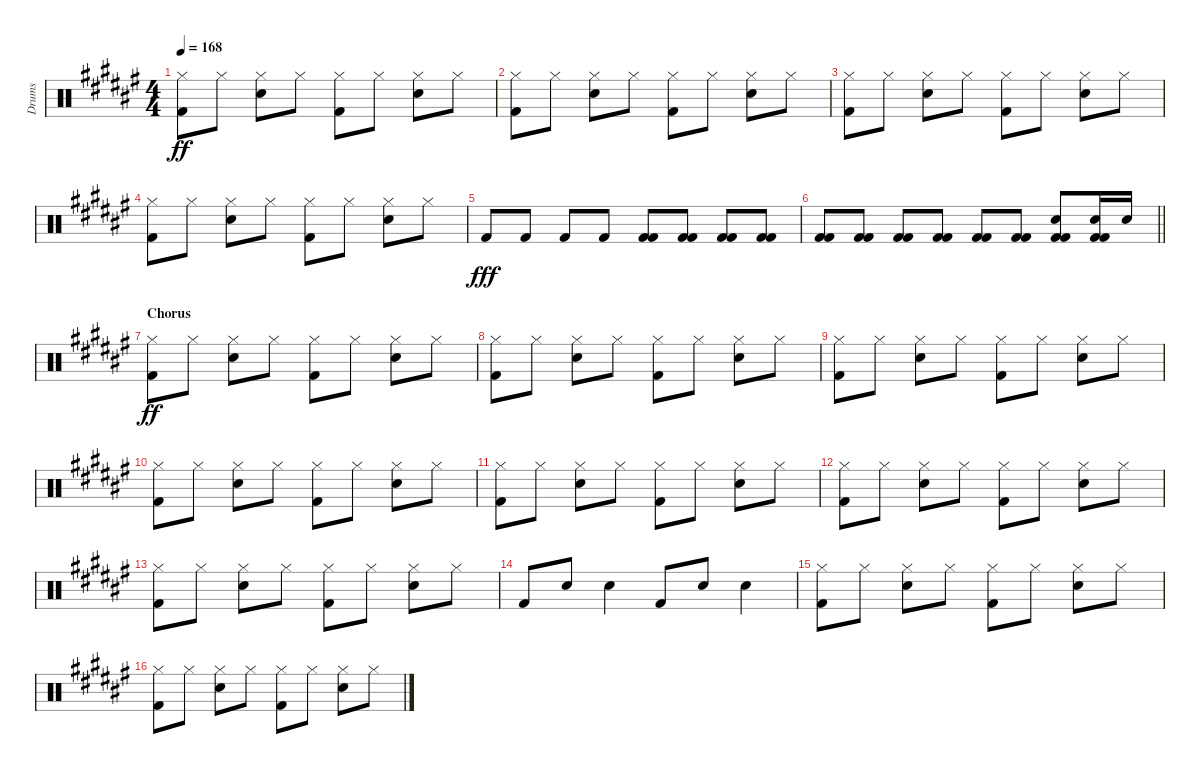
\track ("Drums" "Drums") {instrument percussion}
\staff {score}
\articulation defaults
\ts (4 4)
\tempo 168
\clef neutral
\ks f#
("Hi-Hat (closed)" "Kick (hit) 2").8{dy ff} "Hi-Hat (closed)".8 ("Hi-Hat (closed)" "Electric Snare (hit)").8 "Hi-Hat (closed)".8 ("Hi-Hat (closed)" "Kick (hit) 2").8 "Hi-Hat (closed)".8 ("Hi-Hat (closed)" "Electric Snare (hit)").8 "Hi-Hat (closed)".8 |
("Hi-Hat (closed)" "Kick (hit) 2").8 "Hi-Hat (closed)".8 ("Hi-Hat (closed)" "Electric Snare (hit)").8 "Hi-Hat (closed)".8 ("Hi-Hat (closed)" "Kick (hit) 2").8 "Hi-Hat (closed)".8 ("Hi-Hat (closed)" "Electric Snare (hit)").8 "Hi-Hat (closed)".8 |
("Hi-Hat (closed)" "Kick (hit) 2").8 "Hi-Hat (closed)".8 ("Hi-Hat (closed)" "Electric Snare (hit)").8 "Hi-Hat (closed)".8 ("Hi-Hat (closed)" "Kick (hit) 2").8 "Hi-Hat (closed)".8 ("Hi-Hat (closed)" "Electric Snare (hit)").8 "Hi-Hat (closed)".8 |
("Hi-Hat (closed)" "Kick (hit) 2").8 "Hi-Hat (closed)".8 ("Hi-Hat (closed)" "Electric Snare (hit)").8 "Hi-Hat (closed)".8 ("Hi-Hat (closed)" "Kick (hit) 2").8 "Hi-Hat (closed)".8 ("Hi-Hat (closed)" "Electric Snare (hit)").8 "Hi-Hat (closed)".8 |
"Kick (hit) 2".8{dy fff} "Kick (hit) 2".8 "Kick (hit) 2".8 "Kick (hit) 2".8 ("Kick (hit) 2" "Kick (hit) 2").8 ("Kick (hit) 2" "Kick (hit) 2").8 ("Kick (hit) 2" "Kick (hit) 2").8 ("Kick (hit) 2" "Kick (hit) 2").8 |
\barLineRight lightlight
("Kick (hit) 2" "Kick (hit) 2").8 ("Kick (hit) 2" "Kick (hit) 2").8 ("Kick (hit) 2" "Kick (hit) 2").8 ("Kick (hit) 2" "Kick (hit) 2").8 ("Kick (hit) 2" "Kick (hit) 2").8 ("Kick (hit) 2" "Kick (hit) 2").8 ("Snare (hit) 2" "Kick (hit) 2" "Kick (hit) 2").8 ("Snare (hit) 2" "Kick (hit) 2" "Kick (hit) 2").16 "Snare (hit) 2".16 |
\section ("" "Chorus")
("Hi-Hat (closed)" "Kick (hit) 2").8{dy ff} "Hi-Hat (closed)".8 ("Hi-Hat (closed)" "Snare (hit) 2").8 "Hi-Hat (closed)".8 ("Hi-Hat (closed)" "Kick (hit) 2").8 "Hi-Hat (closed)".8 ("Hi-Hat (closed)" "Snare (hit) 2").8 "Hi-Hat (closed)".8 |
("Hi-Hat (closed)" "Kick (hit) 2").8 "Hi-Hat (closed)".8 ("Hi-Hat (closed)" "Snare (hit) 2").8 "Hi-Hat (closed)".8 ("Hi-Hat (closed)" "Kick (hit) 2").8 "Hi-Hat (closed)".8 ("Hi-Hat (closed)" "Snare (hit) 2").8 "Hi-Hat (closed)".8 |
("Hi-Hat (closed)" "Kick (hit) 2").8 "Hi-Hat (closed)".8 ("Hi-Hat (closed)" "Snare (hit) 2").8 "Hi-Hat (closed)".8 ("Hi-Hat (closed)" "Kick (hit) 2").8 "Hi-Hat (closed)".8 ("Hi-Hat (closed)" "Snare (hit) 2").8 "Hi-Hat (closed)".8 |
("Hi-Hat (closed)" "Kick (hit) 2").8 "Hi-Hat (closed)".8 ("Hi-Hat (closed)" "Snare (hit) 2").8 "Hi-Hat (closed)".8 ("Hi-Hat (closed)" "Kick (hit) 2").8 "Hi-Hat (closed)".8 ("Hi-Hat (closed)" "Snare (hit) 2").8 "Hi-Hat (closed)".8 |
("Hi-Hat (closed)" "Kick (hit) 2").8 "Hi-Hat (closed)".8 ("Hi-Hat (closed)" "Snare (hit) 2").8 "Hi-Hat (closed)".8 ("Hi-Hat (closed)" "Kick (hit) 2").8 "Hi-Hat (closed)".8 ("Hi-Hat (closed)" "Snare (hit) 2").8 "Hi-Hat (closed)".8 |
("Hi-Hat (closed)" "Kick (hit) 2").8 "Hi-Hat (closed)".8 ("Hi-Hat (closed)" "Snare (hit) 2").8 "Hi-Hat (closed)".8 ("Hi-Hat (closed)" "Kick (hit) 2").8 "Hi-Hat (closed)".8 ("Hi-Hat (closed)" "Snare (hit) 2").8 "Hi-Hat (closed)".8 |
("Hi-Hat (closed)" "Kick (hit) 2").8 "Hi-Hat (closed)".8 ("Hi-Hat (closed)" "Snare (hit) 2").8 "Hi-Hat (closed)".8 ("Hi-Hat (closed)" "Kick (hit) 2").8 "Hi-Hat (closed)".8 ("Hi-Hat (closed)" "Snare (hit) 2").8 "Hi-Hat (closed)".8 |
"Kick (hit) 2".8 "Snare (hit) 2".8 "Snare (hit) 2".4 "Kick (hit) 2".8 "Snare (hit) 2".8 "Snare (hit) 2".4 |
("Hi-Hat (closed)" "Kick (hit) 2").8 "Hi-Hat (closed)".8 ("Hi-Hat (closed)" "Snare (hit) 2").8 "Hi-Hat (closed)".8 ("Hi-Hat (closed)" "Kick (hit) 2").8 "Hi-Hat (closed)".8 ("Hi-Hat (closed)" "Snare (hit) 2").8 "Hi-Hat (closed)".8 |
("Hi-Hat (closed)" "Kick (hit) 2").8 "Hi-Hat (closed)".8 ("Hi-Hat (closed)" "Snare (hit) 2").8 "Hi-Hat (closed)".8 ("Hi-Hat (closed)" "Kick (hit) 2").8 "Hi-Hat (closed)".8 ("Hi-Hat (closed)" "Snare (hit) 2").8 "Hi-Hat (closed)".8
